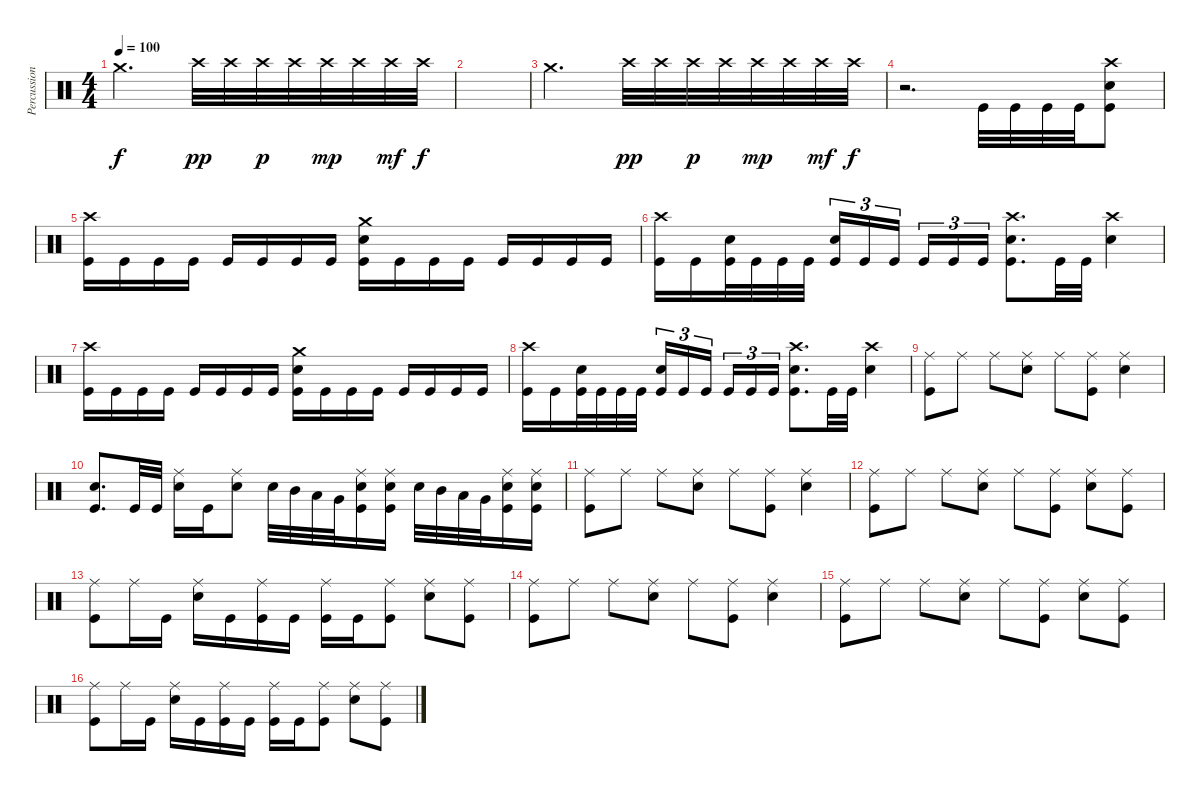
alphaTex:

\track ("Percussion" "Percussion") {instrument percussion}
\staff {score}
\articulation defaults
\ts (4 4)
\tempo 100
\clef neutral
\ks c "Crash medium (hit)".2{d dy f} "Crash high (hit)".32{dy pp} "Crash high (hit)".32 "Crash high (hit)".32{dy p} "Crash high (hit)".32 "Crash high (hit)".32{dy mp} "Crash high (hit)".32 "Crash high (hit)".32{dy mf} "Crash high (hit)".32{dy f}
|
|
"Crash medium (hit)".2{d} "Crash high (hit)".32{dy pp} "Crash high (hit)".32 "Crash high (hit)".32{dy p} "Crash high (hit)".32 "Crash high (hit)".32{dy mp} "Crash high (hit)".32 "Crash high (hit)".32{dy mf} "Crash high (hit)".32{dy f} |
r.2{d} "Kick (hit)".32 "Kick (hit)".32 "Kick (hit)".32 "Kick (hit)".32 ("Crash high (hit)" "Electric Snare (hit)" "Kick (hit)").8 |
("Crash high (hit)" "Kick (hit)").16 "Kick (hit)".16 "Kick (hit)".16 "Kick (hit)".16 "Kick (hit)".16 "Kick (hit)".16 "Kick (hit)".16 "Kick (hit)".16 ("Crash medium (hit)" "Electric Snare (hit)" "Kick (hit)").16 "Kick (hit)".16 "Kick (hit)".16 "Kick (hit)".16 "Kick (hit)".16 "Kick (hit)".16 "Kick (hit)".16 "Kick (hit)".16 |
("Crash high (hit)" "Kick (hit)").16 "Kick (hit)".16 ("Electric Snare (hit)" "Kick (hit)").32 "Kick (hit)".32 "Kick (hit)".32 "Kick (hit)".32 ("Electric Snare (hit)" "Kick (hit)").16{tu (3 2)} "Kick (hit)".16{tu (3 2)} "Kick (hit)".16{tu (3 2) beam splitsecondary} "Kick (hit)".16{tu (3 2)} "Kick (hit)".16{tu (3 2)} "Kick (hit)".16{tu (3 2)} ("Crash high (hit)" "Electric Snare (hit)" "Kick (hit)").8{d} "Kick (hit)".32 "Kick (hit)".32 ("Crash high (hit)" "Electric Snare (hit)").4 |
("Crash high (hit)" "Kick (hit)").16 "Kick (hit)".16 "Kick (hit)".16 "Kick (hit)".16 "Kick (hit)".16 "Kick (hit)".16 "Kick (hit)".16 "Kick (hit)".16 ("Crash medium (hit)" "Electric Snare (hit)" "Kick (hit)").16 "Kick (hit)".16 "Kick (hit)".16 "Kick (hit)".16 "Kick (hit)".16 "Kick (hit)".16 "Kick (hit)".16 "Kick (hit)".16 |
("Crash high (hit)" "Kick (hit)").16 "Kick (hit)".16 ("Electric Snare (hit)" "Kick (hit)").32 "Kick (hit)".32 "Kick (hit)".32 "Kick (hit)".32 ("Electric Snare (hit)" "Kick (hit)").16{tu (3 2)} "Kick (hit)".16{tu (3 2)} "Kick (hit)".16{tu (3 2) beam splitsecondary} "Kick (hit)".16{tu (3 2)} "Kick (hit)".16{tu (3 2)} "Kick (hit)".16{tu (3 2)} ("Crash high (hit)" "Electric Snare (hit)" "Kick (hit)").8{d} "Kick (hit)".32 "Kick (hit)".32 ("Crash high (hit)" "Electric Snare (hit)").4 |
("Ride (middle)" "Kick (hit)").8 "Ride (middle)".8 "Ride (middle)".8 ("Ride (middle)" "Electric Snare (hit)").8 "Ride (middle)".8 ("Ride (middle)" "Kick (hit)").8 ("Ride (middle)" "Electric Snare (hit)").4 |
("Snare (hit)" "Kick (hit)").8{d} "Kick (hit)".32 "Kick (hit)".32 ("Ride (middle)" "Electric Snare (hit)").16 "Kick (hit)".16 ("Ride (middle)" "Electric Snare (hit)").8 "Electric Snare (hit)".32 "Mid Tom (hit)".32 "Low Tom (hit)".32 "Very Low Tom (hit)".32 ("Ride (middle)" "Electric Snare (hit)" "Kick (hit)").16 ("Ride (middle)" "Electric Snare (hit)" "Kick (hit)").16 "Electric Snare (hit)".32 "Mid Tom (hit)".32 "Low Tom (hit)".32 "Very Low Tom (hit)".32 ("Ride (middle)" "Electric Snare (hit)" "Kick (hit)").16 ("Ride (middle)" "Electric Snare (hit)" "Kick (hit)").16 |
("Ride (middle)" "Kick (hit)").8 "Ride (middle)".8 "Ride (middle)".8 ("Ride (middle)" "Electric Snare (hit)").8 "Ride (middle)".8 ("Ride (middle)" "Kick (hit)").8 ("Ride (middle)" "Electric Snare (hit)").4 |
("Ride (middle)" "Kick (hit)").8 "Ride (middle)".8 "Ride (middle)".8 ("Ride (middle)" "Electric Snare (hit)").8 "Ride (middle)".8 ("Ride (middle)" "Kick (hit)").8 ("Ride (middle)" "Electric Snare (hit)").8 ("Ride (middle)" "Kick (hit)").8 |
("Ride (middle)" "Kick (hit)").8 "Ride (middle)".16 "Kick (hit)".16 ("Ride (middle)" "Electric Snare (hit)").16 "Kick (hit)".16 ("Ride (middle)" "Kick (hit)").16 "Kick (hit)".16 ("Ride (middle)" "Kick (hit)").16 "Kick (hit)".16 ("Ride (middle)" "Kick (hit)").8 ("Ride (middle)" "Electric Snare (hit)").8 ("Ride (middle)" "Kick (hit)").8 |
("Ride (middle)" "Kick (hit)").8 "Ride (middle)".8 "Ride (middle)".8 ("Ride (middle)" "Electric Snare (hit)").8 "Ride (middle)".8 ("Ride (middle)" "Kick (hit)").8 ("Ride (middle)" "Electric Snare (hit)").4 |
("Ride (middle)" "Kick (hit)").8 "Ride (middle)".8 "Ride (middle)".8 ("Ride (middle)" "Electric Snare (hit)").8 "Ride (middle)".8 ("Ride (middle)" "Kick (hit)").8 ("Ride (middle)" "Electric Snare (hit)").8 ("Ride (middle)" "Kick (hit)").8 |
("Ride (middle)" "Kick (hit)").8 "Ride (middle)".16 "Kick (hit)".16 ("Ride (middle)" "Electric Snare (hit)").16 "Kick (hit)".16 ("Ride (middle)" "Kick (hit)").16 "Kick (hit)".16 ("Ride (middle)" "Kick (hit)").16 "Kick (hit)".16 ("Ride (middle)" "Kick (hit)").8 ("Ride (middle)" "Electric Snare (hit)").8 ("Ride (middle)" "Kick (hit)").8
